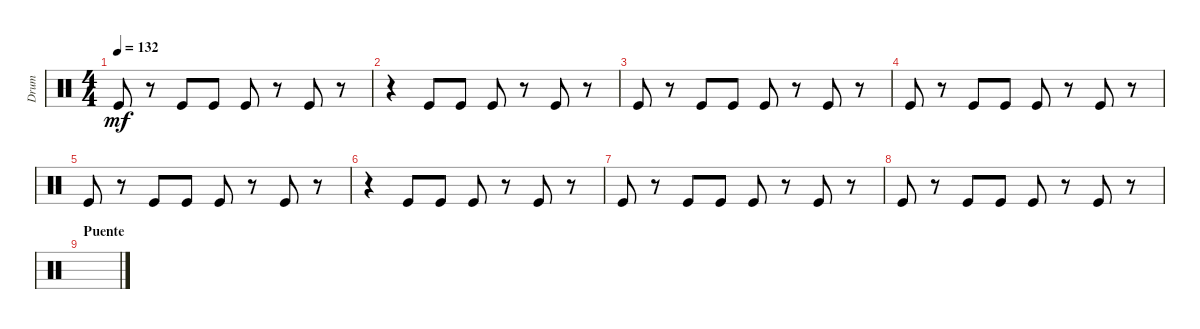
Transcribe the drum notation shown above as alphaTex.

\track ("Drum" "Drum") {instrument percussion}
\staff {score}
\articulation defaults
\ts (4 4)
\tempo 132
\clef neutral
\ks c "Kick (hit)".8{dy mf}
r.8 "Kick (hit)".8 "Kick (hit)".8 "Kick (hit)".8 r.8 "Kick (hit)".8 r.8 |
r.4 "Kick (hit)".8 "Kick (hit)".8 "Kick (hit)".8 r.8 "Kick (hit)".8 r.8 |
"Kick (hit)".8 r.8 "Kick (hit)".8 "Kick (hit)".8 "Kick (hit)".8 r.8 "Kick (hit)".8 r.8 |
"Kick (hit)".8 r.8 "Kick (hit)".8 "Kick (hit)".8 "Kick (hit)".8 r.8 "Kick (hit)".8 r.8 |
"Kick (hit)".8 r.8 "Kick (hit)".8 "Kick (hit)".8 "Kick (hit)".8 r.8 "Kick (hit)".8 r.8 |
r.4 "Kick (hit)".8 "Kick (hit)".8 "Kick (hit)".8 r.8 "Kick (hit)".8 r.8 |
"Kick (hit)".8 r.8 "Kick (hit)".8 "Kick (hit)".8 "Kick (hit)".8 r.8 "Kick (hit)".8 r.8 |
"Kick (hit)".8 r.8 "Kick (hit)".8 "Kick (hit)".8 "Kick (hit)".8 r.8 "Kick (hit)".8 r.8 |
\section ("" "Puente")
